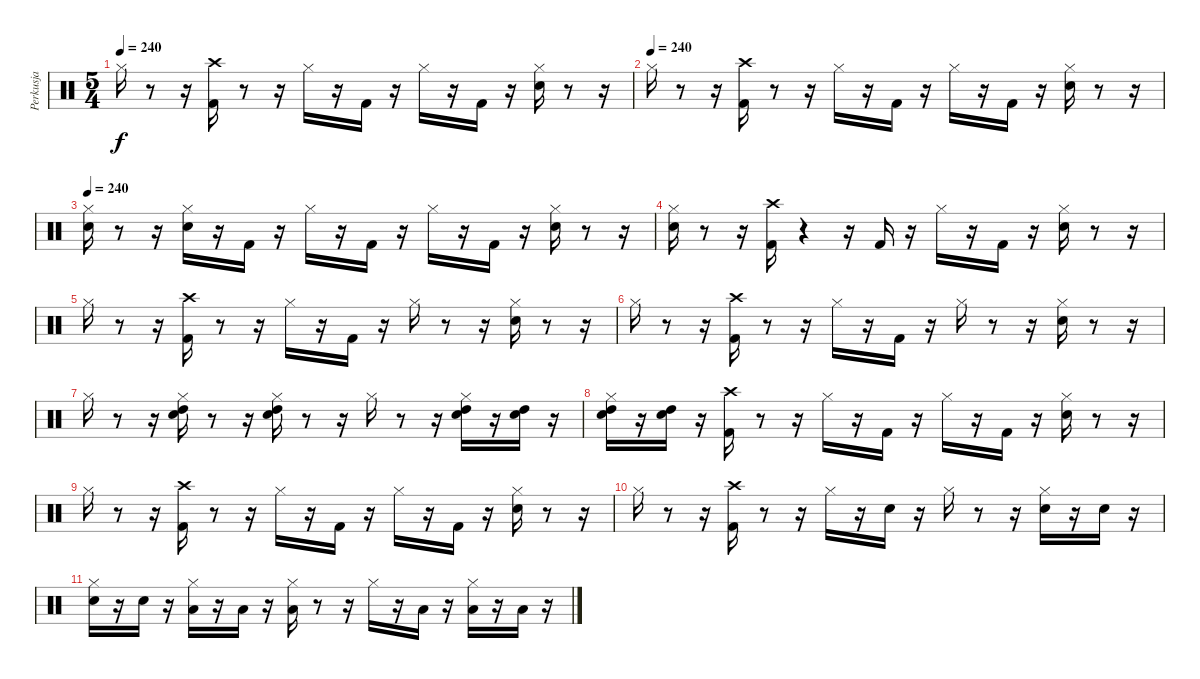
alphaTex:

\track ("Perkusja" "Perkusja") {instrument percussion}
\staff {score}
\articulation defaults
\ts (5 4)
\tempo 240
\clef neutral
\ks c "Hi-Hat (closed)".16{dy f}
r.8 r.16 ("Kick (hit) 2" "Crash high (hit)").16 r.8 r.16 "Hi-Hat (closed)".16 r.16 "Kick (hit) 2".16 r.16 "Hi-Hat (closed)".16 r.16 "Kick (hit) 2".16 r.16 ("Snare (hit) 2" "Hi-Hat (closed)").16 r.8 r.16 |
\tempo (240)
"Hi-Hat (closed)".16 r.8 r.16 ("Kick (hit) 2" "Crash high (hit)").16 r.8 r.16 "Hi-Hat (closed)".16 r.16 "Kick (hit) 2".16 r.16 "Hi-Hat (closed)".16 r.16 "Kick (hit) 2".16 r.16 ("Snare (hit) 2" "Hi-Hat (closed)").16 r.8 r.16 |
\tempo 240
("Snare (hit) 2" "Hi-Hat (closed)").16 r.8 r.16 ("Snare (hit) 2" "Hi-Hat (closed)").16 r.16 "Kick (hit) 2".16 r.16 "Hi-Hat (closed)".16 r.16 "Kick (hit) 2".16 r.16 "Hi-Hat (closed)".16 r.16 "Kick (hit) 2".16 r.16 ("Snare (hit) 2" "Hi-Hat (closed)").16 r.8 r.16 |
("Snare (hit) 2" "Hi-Hat (closed)").16 r.8 r.16 ("Kick (hit) 2" "Crash high (hit)").16 r.4 r.16 "Kick (hit) 2".16 r.16 "Hi-Hat (closed)".16 r.16 "Kick (hit) 2".16 r.16 ("Snare (hit) 2" "Hi-Hat (closed)").16 r.8 r.16 |
"Hi-Hat (closed)".16 r.8 r.16 ("Kick (hit) 2" "Crash high (hit)").16 r.8 r.16 "Hi-Hat (closed)".16 r.16 "Kick (hit) 2".16 r.16 "Hi-Hat (closed)".16 r.8 r.16 ("Snare (hit) 2" "Hi-Hat (closed)").16 r.8 r.16 |
"Hi-Hat (closed)".16 r.8 r.16 ("Kick (hit) 2" "Crash high (hit)").16 r.8 r.16 "Hi-Hat (closed)".16 r.16 "Kick (hit) 2".16 r.16 "Hi-Hat (closed)".16 r.8 r.16 ("Snare (hit) 2" "Hi-Hat (closed)").16 r.8 r.16 |
"Hi-Hat (closed)".16 r.8 r.16 ("Snare (hit) 2" "Hi-Hat (closed)" "High Tom (hit)").16 r.8 r.16 ("Snare (hit) 2" "Hi-Hat (closed)" "High Tom (hit)").16 r.8 r.16 "Hi-Hat (closed)".16 r.8 r.16 ("Snare (hit) 2" "Hi-Hat (closed)" "High Tom (hit)").16 r.16 ("Snare (hit) 2" "High Tom (hit)").16 r.16 |
("Snare (hit) 2" "Hi-Hat (closed)" "High Tom (hit)").16 r.16 ("Snare (hit) 2" "High Tom (hit)").16 r.16 ("Kick (hit) 2" "Crash high (hit)").16 r.8 r.16 "Hi-Hat (closed)".16 r.16 "Kick (hit) 2".16 r.16 "Hi-Hat (closed)".16 r.16 "Kick (hit) 2".16 r.16 ("Snare (hit) 2" "Hi-Hat (closed)").16 r.8 r.16 |
"Hi-Hat (closed)".16 r.8 r.16 ("Kick (hit) 2" "Crash high (hit)").16 r.8 r.16 "Hi-Hat (closed)".16 r.16 "Kick (hit) 2".16 r.16 "Hi-Hat (closed)".16 r.16 "Kick (hit) 2".16 r.16 ("Snare (hit) 2" "Hi-Hat (closed)").16 r.8 r.16 |
"Hi-Hat (closed)".16 r.8 r.16 ("Kick (hit) 2" "Crash high (hit)").16 r.8 r.16 "Hi-Hat (closed)".16 r.16 "Snare (hit) 2".16 r.16 "Hi-Hat (closed)".16 r.8 r.16 ("Snare (hit) 2" "Hi-Hat (closed)").16 r.16 "Snare (hit) 2".16 r.16 |
("Snare (hit) 2" "Hi-Hat (closed)").16 r.16 "Snare (hit) 2".16 r.16 ("Hi-Hat (closed)" "Low Tom (hit)").16 r.16 "Low Tom (hit)".16 r.16 ("Hi-Hat (closed)" "Low Tom (hit)").16 r.8 r.16 "Hi-Hat (closed)".16 r.16 "Low Tom (hit)".16 r.16 ("Hi-Hat (closed)" "Low Tom (hit)").16 r.16 "Low Floor Tom (hit)".16 r.16
